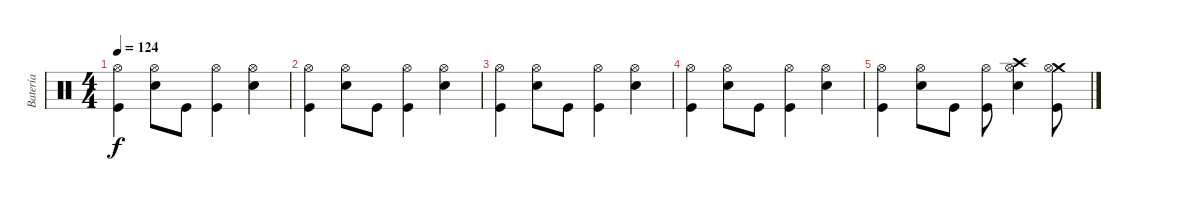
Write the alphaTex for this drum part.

\track ("Batería" "Batería") {instrument percussion}
\staff {score}
\articulation defaults
\ts (4 4)
\tempo 124
\clef neutral
\ks c
("Hi-Hat (open)" "Kick (hit)").4{dy f} ("Hi-Hat (open)" "Snare (hit) 2").8 "Kick (hit)".8 ("Hi-Hat (open)" "Kick (hit)").4 ("Hi-Hat (open)" "Snare (hit) 2").4 |
("Hi-Hat (open)" "Kick (hit)").4 ("Hi-Hat (open)" "Snare (hit) 2").8 "Kick (hit)".8 ("Hi-Hat (open)" "Kick (hit)").4 ("Hi-Hat (open)" "Snare (hit) 2").4 |
("Hi-Hat (open)" "Kick (hit)").4 ("Hi-Hat (open)" "Snare (hit) 2").8 "Kick (hit)".8 ("Hi-Hat (open)" "Kick (hit)").4 ("Hi-Hat (open)" "Snare (hit) 2").4 |
("Hi-Hat (open)" "Kick (hit)").4 ("Hi-Hat (open)" "Snare (hit) 2").8 "Kick (hit)".8 ("Hi-Hat (open)" "Kick (hit)").4 ("Hi-Hat (open)" "Snare (hit) 2").4 |
("Hi-Hat (open)" "Kick (hit)").4 ("Hi-Hat (open)" "Snare (hit) 2").8 "Kick (hit)".8 ("Hi-Hat (open)" "Kick (hit)").8 ("Crash high (hit)" "Hi-Hat (open)" "Snare (hit) 2").4 ("Crash medium (hit)" "Hi-Hat (open)" "Kick (hit)").8
